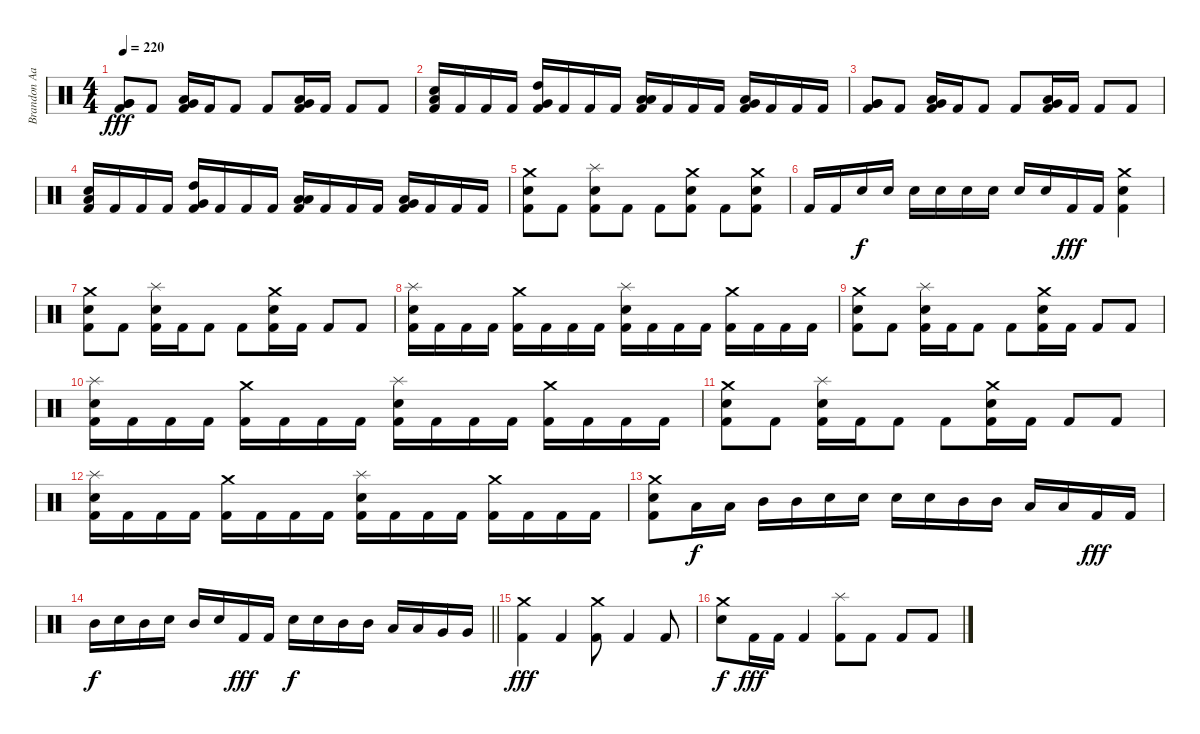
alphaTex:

\track ("Brandon Aaron Burkhalter" "Brandon Aa") {instrument percussion}
\staff {score}
\articulation defaults
\ts (4 4)
\tempo 220
\clef neutral
\ks c
("Very Low Tom (hit)" "Very Low Tom (hit)" "Kick (hit) 2").8{dy fff} "Kick (hit) 2".8 ("Very Low Tom (hit)" "Low Tom (hit)" "Kick (hit) 2").16 "Kick (hit) 2".16 "Kick (hit) 2".8 "Kick (hit) 2".8 ("Very Low Tom (hit)" "Low Tom (hit)" "Kick (hit) 2").16 "Kick (hit) 2".16 "Kick (hit) 2".8 "Kick (hit) 2".8 |
("Snare (hit) 2" "Low Tom (hit)" "Kick (hit) 2").16 "Kick (hit) 2".16 "Kick (hit) 2".16 "Kick (hit) 2".16 ("High Tom (hit)" "Very Low Tom (hit)" "Kick (hit) 2").16 "Kick (hit) 2".16 "Kick (hit) 2".16 "Kick (hit) 2".16 ("Low Tom (hit)" "Low Floor Tom (hit)" "Kick (hit) 2").16 "Kick (hit) 2".16 "Kick (hit) 2".16 "Kick (hit) 2".16 ("Very Low Tom (hit)" "Low Floor Tom (hit)" "Kick (hit) 2").16 "Kick (hit) 2".16 "Kick (hit) 2".16 "Kick (hit) 2".16 |
("Very Low Tom (hit)" "Very Low Tom (hit)" "Kick (hit) 2").8 "Kick (hit) 2".8 ("Very Low Tom (hit)" "Low Tom (hit)" "Kick (hit) 2").16 "Kick (hit) 2".16 "Kick (hit) 2".8 "Kick (hit) 2".8 ("Very Low Tom (hit)" "Low Tom (hit)" "Kick (hit) 2").16 "Kick (hit) 2".16 "Kick (hit) 2".8 "Kick (hit) 2".8 |
("Snare (hit) 2" "Low Tom (hit)" "Kick (hit) 2").16 "Kick (hit) 2".16 "Kick (hit) 2".16 "Kick (hit) 2".16 ("High Tom (hit)" "Very Low Tom (hit)" "Kick (hit) 2").16 "Kick (hit) 2".16 "Kick (hit) 2".16 "Kick (hit) 2".16 ("Low Tom (hit)" "Low Floor Tom (hit)" "Kick (hit) 2").16 "Kick (hit) 2".16 "Kick (hit) 2".16 "Kick (hit) 2".16 ("Very Low Tom (hit)" "Low Floor Tom (hit)" "Kick (hit) 2").16 "Kick (hit) 2".16 "Kick (hit) 2".16 "Kick (hit) 2".16 |
("Crash medium (hit)" "Snare (hit) 2" "Kick (hit) 2").8 "Kick (hit) 2".8 ("Splash (hit)" "Snare (hit) 2" "Kick (hit) 2").8 "Kick (hit) 2".8 "Kick (hit) 2".8 ("Crash medium (hit)" "Snare (hit) 2" "Kick (hit) 2").8 "Kick (hit) 2".8 ("Crash medium (hit)" "Snare (hit) 2" "Kick (hit) 2").8 |
"Kick (hit) 2".16 "Kick (hit) 2".16 "Snare (hit) 2".16{dy f} "Snare (hit) 2".16 "Snare (hit) 2".16 "Snare (hit) 2".16 "Snare (hit) 2".16 "Snare (hit) 2".16 "Snare (hit) 2".16 "Snare (hit) 2".16 "Kick (hit) 2".16{dy fff} "Kick (hit) 2".16 ("Crash medium (hit)" "Snare (hit) 2" "Kick (hit) 2").4 |
("Crash medium (hit)" "Snare (hit) 2" "Kick (hit) 2").8 "Kick (hit) 2".8 ("Splash (hit)" "Snare (hit) 2" "Kick (hit) 2").16 "Kick (hit) 2".16 "Kick (hit) 2".8 "Kick (hit) 2".8 ("Crash medium (hit)" "Snare (hit) 2" "Kick (hit) 2").16 "Kick (hit) 2".16 "Kick (hit) 2".8 "Kick (hit) 2".8 |
("Splash (hit)" "Snare (hit) 2" "Kick (hit) 2").16 "Kick (hit) 2".16 "Kick (hit) 2".16 "Kick (hit) 2".16 ("Crash medium (hit)" "Kick (hit) 2").16 "Kick (hit) 2".16 "Kick (hit) 2".16 "Kick (hit) 2".16 ("Splash (hit)" "Snare (hit) 2" "Kick (hit) 2").16 "Kick (hit) 2".16 "Kick (hit) 2".16 "Kick (hit) 2".16 ("Crash medium (hit)" "Kick (hit) 2").16 "Kick (hit) 2".16 "Kick (hit) 2".16 "Kick (hit) 2".16 |
("Crash medium (hit)" "Snare (hit) 2" "Kick (hit) 2").8 "Kick (hit) 2".8 ("Splash (hit)" "Snare (hit) 2" "Kick (hit) 2").16 "Kick (hit) 2".16 "Kick (hit) 2".8 "Kick (hit) 2".8 ("Crash medium (hit)" "Snare (hit) 2" "Kick (hit) 2").16 "Kick (hit) 2".16 "Kick (hit) 2".8 "Kick (hit) 2".8 |
("Splash (hit)" "Snare (hit) 2" "Kick (hit) 2").16 "Kick (hit) 2".16 "Kick (hit) 2".16 "Kick (hit) 2".16 ("Crash medium (hit)" "Kick (hit) 2").16 "Kick (hit) 2".16 "Kick (hit) 2".16 "Kick (hit) 2".16 ("Splash (hit)" "Snare (hit) 2" "Kick (hit) 2").16 "Kick (hit) 2".16 "Kick (hit) 2".16 "Kick (hit) 2".16 ("Crash medium (hit)" "Kick (hit) 2").16 "Kick (hit) 2".16 "Kick (hit) 2".16 "Kick (hit) 2".16 |
("Crash medium (hit)" "Snare (hit) 2" "Kick (hit) 2").8 "Kick (hit) 2".8 ("Splash (hit)" "Snare (hit) 2" "Kick (hit) 2").16 "Kick (hit) 2".16 "Kick (hit) 2".8 "Kick (hit) 2".8 ("Crash medium (hit)" "Snare (hit) 2" "Kick (hit) 2").16 "Kick (hit) 2".16 "Kick (hit) 2".8 "Kick (hit) 2".8 |
("Splash (hit)" "Snare (hit) 2" "Kick (hit) 2").16 "Kick (hit) 2".16 "Kick (hit) 2".16 "Kick (hit) 2".16 ("Crash medium (hit)" "Kick (hit) 2").16 "Kick (hit) 2".16 "Kick (hit) 2".16 "Kick (hit) 2".16 ("Splash (hit)" "Snare (hit) 2" "Kick (hit) 2").16 "Kick (hit) 2".16 "Kick (hit) 2".16 "Kick (hit) 2".16 ("Crash medium (hit)" "Kick (hit) 2").16 "Kick (hit) 2".16 "Kick (hit) 2".16 "Kick (hit) 2".16 |
("Crash medium (hit)" "Snare (hit) 2" "Kick (hit) 2").8 "Low Tom (hit)".16{dy f} "Low Tom (hit)".16 "Mid Tom (hit)".16 "Mid Tom (hit)".16 "Snare (hit) 2".16 "Snare (hit) 2".16 "Snare (hit) 2".16 "Snare (hit) 2".16 "Mid Tom (hit)".16 "Mid Tom (hit)".16 "Low Tom (hit)".16 "Low Tom (hit)".16 "Kick (hit) 2".16{dy fff} "Kick (hit) 2".16 |
\barLineRight lightlight "Mid Tom (hit)".16{dy f} "Snare (hit) 2".16 "Mid Tom (hit)".16 "Snare (hit) 2".16 "Mid Tom (hit)".16 "Snare (hit) 2".16 "Kick (hit) 2".16{dy fff} "Kick (hit) 2".16 "Snare (hit) 2".16{dy f} "Snare (hit) 2".16 "Mid Tom (hit)".16 "Mid Tom (hit)".16 "Low Tom (hit)".16 "Low Tom (hit)".16 "Very Low Tom (hit)".16 "Very Low Tom (hit)".16
|
("Crash medium (hit)" "Kick (hit) 2").4{dy fff} "Kick (hit) 2".4 ("Crash medium (hit)" "Kick (hit) 2").8 "Kick (hit) 2".4 "Kick (hit) 2".8 |
("Crash medium (hit)" "Snare (hit) 2").8{dy f} "Kick (hit) 2".16{dy fff} "Kick (hit) 2".16 "Kick (hit) 2".4 ("Splash (hit)" "Kick (hit) 2").8 "Kick (hit) 2".8 "Kick (hit) 2".8 "Kick (hit) 2".8
